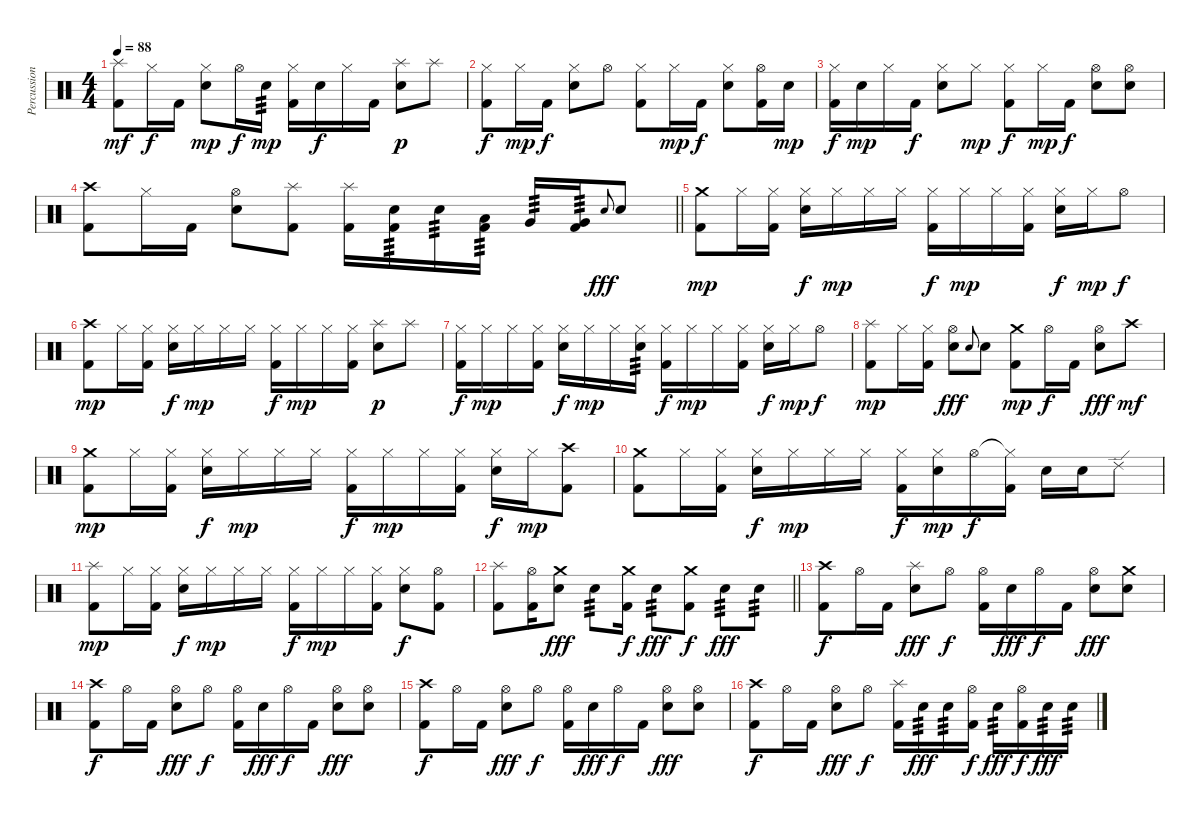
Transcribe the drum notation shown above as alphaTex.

\track ("Percussion" "Percussion") {instrument percussion}
\staff {score}
\articulation defaults
\ts (4 4)
\tempo 88
\clef neutral
\ks c
("Splash (hit)" "Kick (hit) 2").8{dy mf} "Hi-Hat (closed)".16{dy f} "Kick (hit) 2".16 ("Hi-Hat (closed)" "Electric Snare (hit)").8{dy mp} "Hi-Hat (open)".16{dy f} "Electric Snare (hit)".16{tp 3 dy mp} ("Hi-Hat (closed)" "Kick (hit) 2").16 "Electric Snare (hit)".16{dy f} "Hi-Hat (closed)".16 "Kick (hit) 2".16 ("Splash (hit)" "Electric Snare (hit)").8{dy p} "Splash (hit)".8 |
("Hi-Hat (closed)" "Kick (hit) 2").8{dy f} "Hi-Hat (closed)".16{dy mp} "Kick (hit) 2".16{dy f} ("Hi-Hat (closed)" "Electric Snare (hit)").8 "Hi-Hat (open)".8 ("Hi-Hat (closed)" "Kick (hit) 2").8 "Hi-Hat (closed)".16{dy mp} "Kick (hit) 2".16{dy f} ("Hi-Hat (closed)" "Electric Snare (hit)").8 ("Hi-Hat (open)" "Kick (hit) 2").16 "Electric Snare (hit)".16{dy mp} |
("Hi-Hat (closed)" "Kick (hit) 2").16{dy f} "Electric Snare (hit)".16{dy mp} "Hi-Hat (closed)".16 "Kick (hit) 2".16{dy f} ("Hi-Hat (closed)" "Electric Snare (hit)").8 "Hi-Hat (closed)".8{dy mp} ("Hi-Hat (closed)" "Kick (hit) 2").8{dy f} "Hi-Hat (closed)".16{dy mp} "Kick (hit) 2".16{dy f} ("Hi-Hat (open)" "Electric Snare (hit)").8 ("Hi-Hat (open)" "Electric Snare (hit)").8 |
\barLineRight lightlight
("Crash high (hit)" "Kick (hit) 2").8 "Hi-Hat (closed)".16 "Kick (hit) 2".16 ("Hi-Hat (open)" "Electric Snare (hit)").8 ("Splash (hit)" "Kick (hit) 2").8 ("Splash (hit)" "Kick (hit) 2").16 ("Electric Snare (hit)" "Kick (hit) 2").16{tp 3} "Electric Snare (hit)".16{tp 3} ("Low Tom (hit)" "Kick (hit) 2").16{tp 3} "Very Low Tom (hit)".16{tp 3} ("Very Low Tom (hit)" "Kick (hit) 2").16{tp 3} "Electric Snare (hit)".8{gr onbeat dy fff} "Electric Snare (hit)".8 |
("Crash medium (hit)" "Kick (hit) 2").8{dy mp} "Hi-Hat (closed)".16 ("Hi-Hat (closed)" "Kick (hit) 2").16 ("Hi-Hat (closed)" "Electric Snare (hit)").16{dy f} "Hi-Hat (closed)".16{dy mp} "Hi-Hat (closed)".16 "Hi-Hat (closed)".16 ("Hi-Hat (closed)" "Kick (hit) 2").16{dy f} "Hi-Hat (closed)".16{dy mp} "Hi-Hat (closed)".16 ("Hi-Hat (closed)" "Kick (hit) 2").16 ("Hi-Hat (closed)" "Electric Snare (hit)").16{dy f} "Hi-Hat (closed)".16{dy mp} "Hi-Hat (open)".8{dy f} |
("Crash high (hit)" "Kick (hit) 2").8{dy mp} "Hi-Hat (closed)".16 ("Hi-Hat (closed)" "Kick (hit) 2").16 ("Hi-Hat (closed)" "Electric Snare (hit)").16{dy f} "Hi-Hat (closed)".16{dy mp} "Hi-Hat (closed)".16 "Hi-Hat (closed)".16 ("Hi-Hat (closed)" "Kick (hit) 2").16{dy f} "Hi-Hat (closed)".16{dy mp} "Hi-Hat (closed)".16 ("Hi-Hat (closed)" "Kick (hit) 2").16 ("Splash (hit)" "Electric Snare (hit)").8{dy p} "Splash (hit)".8 |
("Hi-Hat (closed)" "Kick (hit) 2").16{dy f} "Hi-Hat (closed)".16{dy mp} "Hi-Hat (closed)".16 ("Hi-Hat (closed)" "Kick (hit) 2").16 ("Hi-Hat (closed)" "Electric Snare (hit)").16{dy f} "Hi-Hat (closed)".16{dy mp} "Hi-Hat (closed)".16 ("Hi-Hat (closed)" "Electric Snare (hit)").16{tp 3} ("Hi-Hat (closed)" "Kick (hit) 2").16{dy f} "Hi-Hat (closed)".16{dy mp} "Hi-Hat (closed)".16 ("Hi-Hat (closed)" "Kick (hit) 2").16 ("Hi-Hat (closed)" "Electric Snare (hit)").16{dy f} "Hi-Hat (closed)".16{dy mp} "Hi-Hat (open)".8{dy f} |
("Splash (hit)" "Kick (hit) 2").8{dy mp} "Hi-Hat (closed)".16 ("Hi-Hat (closed)" "Kick (hit) 2").16 ("Hi-Hat (open)" "Electric Snare (hit)").8{dy fff} "Electric Snare (hit)".8{gr onbeat} "Electric Snare (hit)".8 ("Crash medium (hit)" "Kick (hit) 2").8{dy mp} "Hi-Hat (open)".16{dy f} "Kick (hit) 2".16 ("Hi-Hat (open)" "Electric Snare (hit)").8{dy fff} "Crash high (hit)".8{dy mf} |
("Crash medium (hit)" "Kick (hit) 2").8{dy mp} "Hi-Hat (closed)".16 ("Hi-Hat (closed)" "Kick (hit) 2").16 ("Hi-Hat (closed)" "Electric Snare (hit)").16{dy f} "Hi-Hat (closed)".16{dy mp} "Hi-Hat (closed)".16 "Hi-Hat (closed)".16 ("Hi-Hat (closed)" "Kick (hit) 2").16{dy f} "Hi-Hat (closed)".16{dy mp} "Hi-Hat (closed)".16 ("Hi-Hat (closed)" "Kick (hit) 2").16 ("Hi-Hat (closed)" "Electric Snare (hit)").16{dy f} "Hi-Hat (closed)".16{dy mp} ("Crash high (hit)" "Kick (hit) 2").8 |
("Crash medium (hit)" "Kick (hit) 2").8 "Hi-Hat (closed)".16 ("Hi-Hat (closed)" "Kick (hit) 2").16 ("Hi-Hat (closed)" "Electric Snare (hit)").16{dy f} "Hi-Hat (closed)".16{dy mp} "Hi-Hat (closed)".16 "Hi-Hat (closed)".16 ("Hi-Hat (closed)" "Kick (hit) 2").16{dy f} ("Hi-Hat (closed)" "Electric Snare (hit)").16{dy mp} "Hi-Hat (open)".16{dy f} ("Hi-Hat (closed)"{t} "Kick (hit) 2").16 "Electric Snare (hit)".16 "Electric Snare (hit)".16 "Ride (edge) 2".8 |
("Splash (hit)" "Kick (hit) 2").8{dy mp} "Hi-Hat (closed)".16 ("Hi-Hat (closed)" "Kick (hit) 2").16 ("Hi-Hat (closed)" "Electric Snare (hit)").16{dy f} "Hi-Hat (closed)".16{dy mp} "Hi-Hat (closed)".16 "Hi-Hat (closed)".16 ("Hi-Hat (closed)" "Kick (hit) 2").16{dy f} "Hi-Hat (closed)".16{dy mp} "Hi-Hat (closed)".16 ("Hi-Hat (closed)" "Kick (hit) 2").16 ("Hi-Hat (closed)" "Electric Snare (hit)").8{dy f} ("Hi-Hat (open)" "Kick (hit) 2").8 |
\barLineRight lightlight
("Splash (hit)" "Kick (hit) 2").8 ("Hi-Hat (open)" "Kick (hit) 2").16 ("Crash medium (hit)" "Electric Snare (hit)").8{dy fff} "Electric Snare (hit)".8{tp 3} ("Crash medium (hit)" "Kick (hit) 2").16{dy f} "Electric Snare (hit)".8{tp 3 dy fff} ("Crash medium (hit)" "Kick (hit) 2").8{dy f} "Electric Snare (hit)".8{tp 3 dy fff} "Electric Snare (hit)".8{tp 3} |
("Crash high (hit)" "Kick (hit) 2").8{dy f} "Hi-Hat (open)".16 "Kick (hit) 2".16 ("Splash (hit)" "Electric Snare (hit)").8{dy fff} "Hi-Hat (open)".8{dy f} ("Hi-Hat (open)" "Kick (hit) 2").16 "Electric Snare (hit)".16{dy fff} "Hi-Hat (open)".16{dy f} "Kick (hit) 2".16 ("Hi-Hat (open)" "Electric Snare (hit)").8{dy fff} ("Crash medium (hit)" "Electric Snare (hit)").8 |
("Crash high (hit)" "Kick (hit) 2").8{dy f} "Hi-Hat (open)".16 "Kick (hit) 2".16 ("Hi-Hat (open)" "Electric Snare (hit)").8{dy fff} "Hi-Hat (open)".8{dy f} ("Hi-Hat (open)" "Kick (hit) 2").16 "Electric Snare (hit)".16{dy fff} "Hi-Hat (open)".16{dy f} "Kick (hit) 2".16 ("Hi-Hat (open)" "Electric Snare (hit)").8{dy fff} ("Hi-Hat (open)" "Electric Snare (hit)").8 |
("Crash high (hit)" "Kick (hit) 2").8{dy f} "Hi-Hat (open)".16 "Kick (hit) 2".16 ("Hi-Hat (open)" "Electric Snare (hit)").8{dy fff} "Hi-Hat (open)".8{dy f} ("Hi-Hat (open)" "Kick (hit) 2").16 "Electric Snare (hit)".16{dy fff} "Hi-Hat (open)".16{dy f} "Kick (hit) 2".16 ("Hi-Hat (open)" "Electric Snare (hit)").8{dy fff} ("Hi-Hat (open)" "Electric Snare (hit)").8 |
("Crash high (hit)" "Kick (hit) 2").8{dy f} "Hi-Hat (open)".16 "Kick (hit) 2".16 ("Hi-Hat (open)" "Electric Snare (hit)").8{dy fff} "Hi-Hat (open)".8{dy f} ("Splash (hit)" "Kick (hit) 2").16 "Electric Snare (hit)".16{tp 3 dy fff} "Electric Snare (hit)".16{tp 3} ("Hi-Hat (open)" "Kick (hit) 2").16{dy f} "Electric Snare (hit)".16{tp 3 dy fff} ("Hi-Hat (open)" "Kick (hit) 2").16{dy f} "Electric Snare (hit)".16{tp 3 dy fff} "Electric Snare (hit)".16{tp 3}
